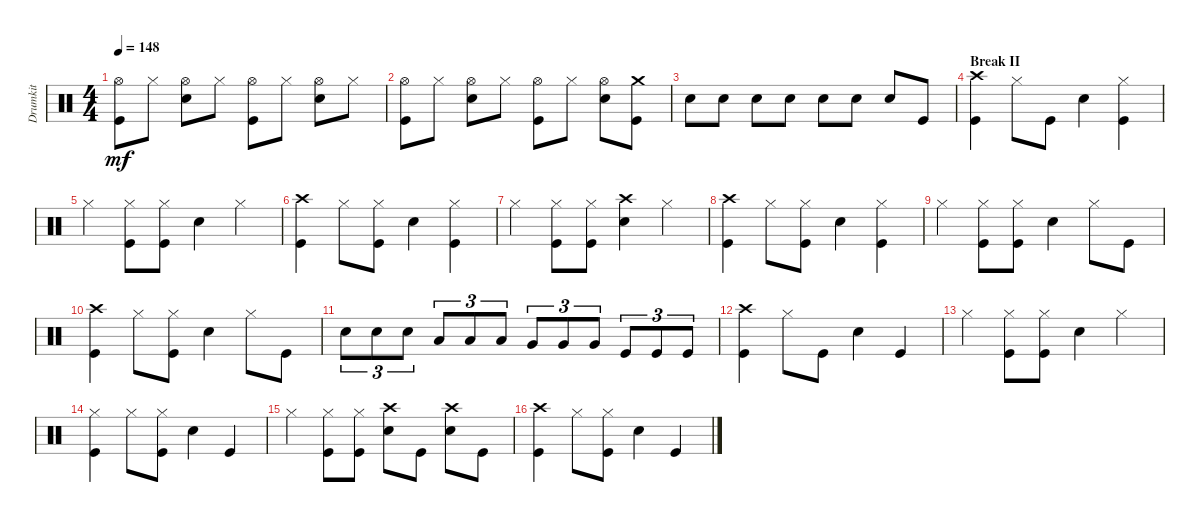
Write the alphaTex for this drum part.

\track ("Drumkit" "Drumkit") {instrument percussion}
\staff {score}
\articulation defaults
\ts (4 4)
\tempo 148
\clef neutral
\ks c
("Kick (hit)" "Hi-Hat (open)").8{dy mf} "Hi-Hat (closed)".8 ("Snare (hit) 2" "Hi-Hat (open)").8 "Hi-Hat (closed)".8 ("Kick (hit)" "Hi-Hat (open)").8 "Hi-Hat (closed)".8 ("Snare (hit) 2" "Hi-Hat (open)").8 "Hi-Hat (closed)".8 |
("Kick (hit)" "Hi-Hat (open)").8 "Hi-Hat (closed)".8 ("Snare (hit) 2" "Hi-Hat (open)").8 "Hi-Hat (closed)".8 ("Kick (hit)" "Hi-Hat (open)").8 "Hi-Hat (closed)".8 ("Snare (hit) 2" "Hi-Hat (open)").8 ("Crash medium (hit)" "Kick (hit)").8 |
"Snare (hit) 2".8 "Snare (hit) 2".8 "Snare (hit) 2".8 "Snare (hit) 2".8 "Snare (hit) 2".8 "Snare (hit) 2".8 "Snare (hit) 2".8 "Kick (hit)".8 |
\section ("" "Break II")
("Kick (hit)" "Crash high (hit)").4 "Hi-Hat (closed)".8 "Kick (hit)".8 "Snare (hit) 2".4 ("Kick (hit)" "Hi-Hat (closed)").4 |
"Hi-Hat (closed)".4 ("Kick (hit)" "Hi-Hat (closed)").8 ("Kick (hit)" "Hi-Hat (closed)").8 "Snare (hit) 2".4 "Hi-Hat (closed)".4 |
("Crash high (hit)" "Kick (hit)").4 "Hi-Hat (closed)".8 ("Kick (hit)" "Hi-Hat (closed)").8 "Snare (hit) 2".4 ("Kick (hit)" "Hi-Hat (closed)").4 |
"Hi-Hat (closed)".4 ("Hi-Hat (closed)" "Kick (hit)").8 ("Hi-Hat (closed)" "Kick (hit)").8 ("Snare (hit) 2" "Crash high (hit)").4 "Hi-Hat (closed)".4 |
("Crash high (hit)" "Kick (hit)").4 "Hi-Hat (closed)".8 ("Hi-Hat (closed)" "Kick (hit)").8 "Snare (hit) 2".4 ("Hi-Hat (closed)" "Kick (hit)").4 |
"Hi-Hat (closed)".4 ("Kick (hit)" "Hi-Hat (closed)").8 ("Kick (hit)" "Hi-Hat (closed)").8 "Snare (hit) 2".4 "Hi-Hat (closed)".8 "Kick (hit)".8 |
("Kick (hit)" "Crash high (hit)").4 "Hi-Hat (closed)".8 ("Hi-Hat (closed)" "Kick (hit)").8 "Snare (hit) 2".4 "Hi-Hat (closed)".8 "Kick (hit)".8 |
"Snare (hit) 2".8{tu (3 2)} "Snare (hit) 2".8{tu (3 2)} "Snare (hit) 2".8{tu (3 2)} "Low Tom (hit)".8{tu (3 2)} "Low Tom (hit)".8{tu (3 2)} "Low Tom (hit)".8{tu (3 2)} "Very Low Tom (hit)".8{tu (3 2)} "Very Low Tom (hit)".8{tu (3 2)} "Very Low Tom (hit)".8{tu (3 2)} "Kick (hit)".8{tu (3 2)} "Kick (hit)".8{tu (3 2)} "Kick (hit)".8{tu (3 2)} |
("Crash high (hit)" "Kick (hit)").4 "Hi-Hat (closed)".8 "Kick (hit)".8 "Snare (hit) 2".4 "Kick (hit)".4 |
"Hi-Hat (closed)".4 ("Kick (hit)" "Hi-Hat (closed)").8 ("Kick (hit)" "Hi-Hat (closed)").8 "Snare (hit) 2".4 "Hi-Hat (closed)".4 |
("Hi-Hat (closed)" "Kick (hit)").4 "Hi-Hat (closed)".8 ("Hi-Hat (closed)" "Kick (hit)").8 "Snare (hit) 2".4 "Kick (hit)".4 |
"Hi-Hat (closed)".4 ("Kick (hit)" "Hi-Hat (closed)").8 ("Kick (hit)" "Hi-Hat (closed)").8 ("Crash high (hit)" "Snare (hit) 2").8 "Kick (hit)".8 ("Crash high (hit)" "Snare (hit) 2").8 "Kick (hit)".8 |
("Kick (hit)" "Crash high (hit)").4 "Hi-Hat (closed)".8 ("Kick (hit)" "Hi-Hat (closed)").8 "Snare (hit) 2".4 "Kick (hit)".4
